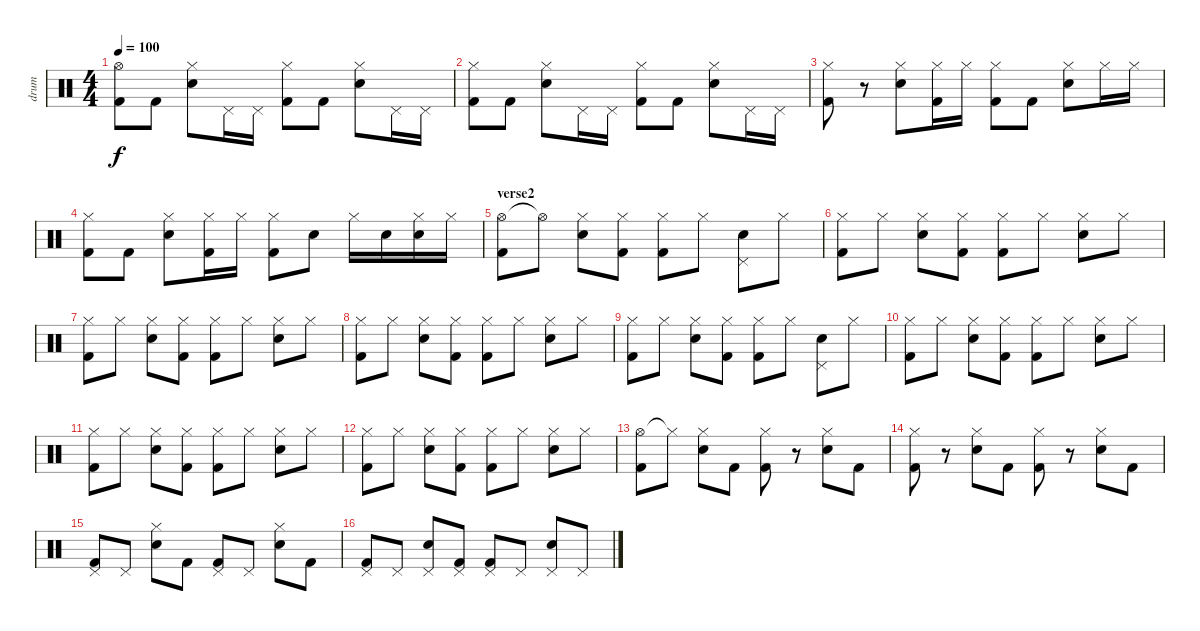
\track ("drum" "drum") {instrument percussion}
\staff {score}
\articulation defaults
\ts (4 4)
\tempo 100
\clef neutral
\ks c
("Hi-Hat (open)" "Kick (hit) 2").8{dy f} "Kick (hit) 2".8 ("Hi-Hat (closed)" "Electric Snare (hit)").8 "Pedal Hi-Hat (hit)".16 "Pedal Hi-Hat (hit)".16 ("Hi-Hat (closed)" "Kick (hit) 2").8 "Kick (hit) 2".8 ("Hi-Hat (closed)" "Electric Snare (hit)").8 "Pedal Hi-Hat (hit)".16 "Pedal Hi-Hat (hit)".16 |
("Hi-Hat (closed)" "Kick (hit) 2").8 "Kick (hit) 2".8 ("Hi-Hat (closed)" "Electric Snare (hit)").8 "Pedal Hi-Hat (hit)".16 "Pedal Hi-Hat (hit)".16 ("Hi-Hat (closed)" "Kick (hit) 2").8 "Kick (hit) 2".8 ("Hi-Hat (closed)" "Electric Snare (hit)").8 "Pedal Hi-Hat (hit)".16 "Pedal Hi-Hat (hit)".16 |
("Hi-Hat (closed)" "Kick (hit) 2").8 r.8 ("Hi-Hat (closed)" "Electric Snare (hit)").8 ("Hi-Hat (closed)" "Kick (hit) 2").16 "Hi-Hat (closed)".16 ("Hi-Hat (closed)" "Kick (hit) 2").8 "Kick (hit) 2".8 ("Hi-Hat (closed)" "Electric Snare (hit)").8 "Hi-Hat (closed)".16 "Hi-Hat (closed)".16 |
("Hi-Hat (closed)" "Kick (hit) 2").8 "Kick (hit) 2".8 ("Hi-Hat (closed)" "Electric Snare (hit)").8 ("Hi-Hat (closed)" "Kick (hit) 2").16 "Hi-Hat (closed)".16 ("Hi-Hat (closed)" "Kick (hit) 2").8 "Electric Snare (hit)".8 "Hi-Hat (closed)".16 "Electric Snare (hit)".16 ("Hi-Hat (closed)" "Electric Snare (hit)").16 "Hi-Hat (closed)".16 |
\section ("" "verse2")
("Hi-Hat (open)" "Kick (hit) 2").8 "Hi-Hat (open)"{t}.8 ("Hi-Hat (closed)" "Electric Snare (hit)").8 ("Hi-Hat (closed)" "Kick (hit) 2").8 ("Hi-Hat (closed)" "Kick (hit) 2").8 "Hi-Hat (closed)".8 ("Pedal Hi-Hat (hit)" "Electric Snare (hit)").8 "Hi-Hat (closed)".8 |
("Hi-Hat (closed)" "Kick (hit) 2").8 "Hi-Hat (closed)".8 ("Hi-Hat (closed)" "Electric Snare (hit)").8 ("Hi-Hat (closed)" "Kick (hit) 2").8 ("Hi-Hat (closed)" "Kick (hit) 2").8 "Hi-Hat (closed)".8 ("Hi-Hat (closed)" "Electric Snare (hit)").8 "Hi-Hat (closed)".8 |
("Hi-Hat (closed)" "Kick (hit) 2").8 "Hi-Hat (closed)".8 ("Hi-Hat (closed)" "Electric Snare (hit)").8 ("Hi-Hat (closed)" "Kick (hit) 2").8 ("Hi-Hat (closed)" "Kick (hit) 2").8 "Hi-Hat (closed)".8 ("Hi-Hat (closed)" "Electric Snare (hit)").8 "Hi-Hat (closed)".8 |
("Hi-Hat (closed)" "Kick (hit) 2").8 "Hi-Hat (closed)".8 ("Hi-Hat (closed)" "Electric Snare (hit)").8 ("Hi-Hat (closed)" "Kick (hit) 2").8 ("Hi-Hat (closed)" "Kick (hit) 2").8 "Hi-Hat (closed)".8 ("Hi-Hat (closed)" "Electric Snare (hit)").8 "Hi-Hat (closed)".8 |
("Hi-Hat (closed)" "Kick (hit) 2").8 "Hi-Hat (closed)".8 ("Hi-Hat (closed)" "Electric Snare (hit)").8 ("Hi-Hat (closed)" "Kick (hit) 2").8 ("Hi-Hat (closed)" "Kick (hit) 2").8 "Hi-Hat (closed)".8 ("Pedal Hi-Hat (hit)" "Electric Snare (hit)").8 "Hi-Hat (closed)".8 |
("Hi-Hat (closed)" "Kick (hit) 2").8 "Hi-Hat (closed)".8 ("Hi-Hat (closed)" "Electric Snare (hit)").8 ("Hi-Hat (closed)" "Kick (hit) 2").8 ("Hi-Hat (closed)" "Kick (hit) 2").8 "Hi-Hat (closed)".8 ("Hi-Hat (closed)" "Electric Snare (hit)").8 "Hi-Hat (closed)".8 |
("Hi-Hat (closed)" "Kick (hit) 2").8 "Hi-Hat (closed)".8 ("Hi-Hat (closed)" "Electric Snare (hit)").8 ("Hi-Hat (closed)" "Kick (hit) 2").8 ("Hi-Hat (closed)" "Kick (hit) 2").8 "Hi-Hat (closed)".8 ("Hi-Hat (closed)" "Electric Snare (hit)").8 "Hi-Hat (closed)".8 |
("Hi-Hat (closed)" "Kick (hit) 2").8 "Hi-Hat (closed)".8 ("Hi-Hat (closed)" "Electric Snare (hit)").8 ("Hi-Hat (closed)" "Kick (hit) 2").8 ("Hi-Hat (closed)" "Kick (hit) 2").8 "Hi-Hat (closed)".8 ("Hi-Hat (closed)" "Electric Snare (hit)").8 "Hi-Hat (closed)".8 |
("Hi-Hat (open)" "Kick (hit) 2").8 "Hi-Hat (closed)"{t}.8 ("Hi-Hat (closed)" "Electric Snare (hit)").8 "Kick (hit) 2".8 ("Hi-Hat (closed)" "Kick (hit) 2").8 r.8 ("Hi-Hat (closed)" "Electric Snare (hit)").8 "Kick (hit) 2".8 |
("Hi-Hat (closed)" "Kick (hit) 2").8 r.8 ("Hi-Hat (closed)" "Electric Snare (hit)").8 "Kick (hit) 2".8 ("Hi-Hat (closed)" "Kick (hit) 2").8 r.8 ("Hi-Hat (closed)" "Electric Snare (hit)").8 "Kick (hit) 2".8 |
("Pedal Hi-Hat (hit)" "Kick (hit) 2").8 "Pedal Hi-Hat (hit)".8 ("Hi-Hat (closed)" "Electric Snare (hit)").8 "Kick (hit) 2".8 ("Pedal Hi-Hat (hit)" "Kick (hit) 2").8 "Pedal Hi-Hat (hit)".8 ("Hi-Hat (closed)" "Electric Snare (hit)").8 "Kick (hit) 2".8 |
("Pedal Hi-Hat (hit)" "Kick (hit) 2").8 "Pedal Hi-Hat (hit)".8 ("Pedal Hi-Hat (hit)" "Electric Snare (hit)").8 ("Pedal Hi-Hat (hit)" "Kick (hit) 2").8 ("Pedal Hi-Hat (hit)" "Kick (hit) 2").8 "Pedal Hi-Hat (hit)".8 ("Pedal Hi-Hat (hit)" "Electric Snare (hit)").8 "Pedal Hi-Hat (hit)".8
